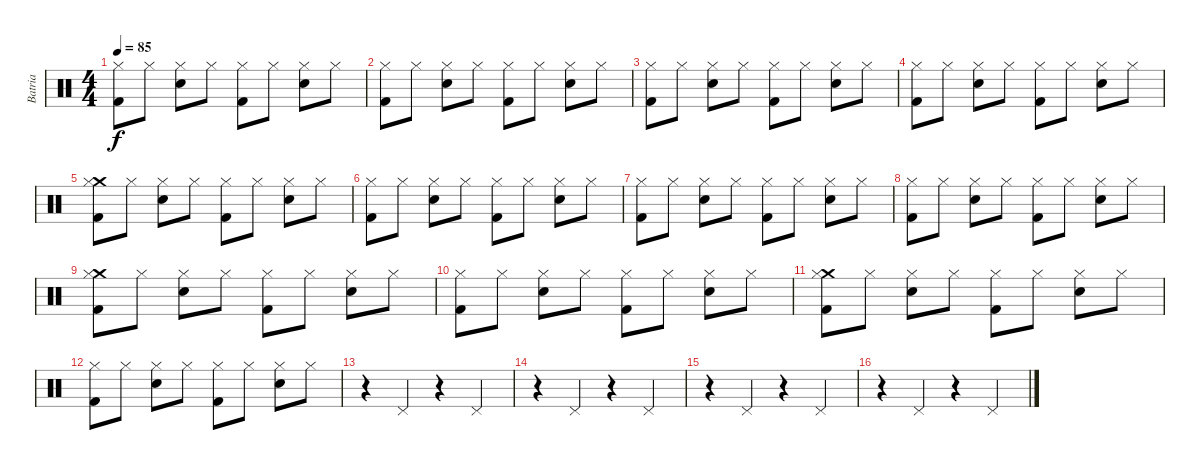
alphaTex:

\track ("Batria" "Batria") {instrument percussion}
\staff {score}
\articulation defaults
\ts (4 4)
\tempo 85
\clef neutral
\ks c
("Hi-Hat (closed)" "Kick (hit) 2").8{dy f} "Hi-Hat (closed)".8 ("Hi-Hat (closed)" "Snare (hit) 2").8 "Hi-Hat (closed)".8 ("Hi-Hat (closed)" "Kick (hit) 2").8 "Hi-Hat (closed)".8 ("Hi-Hat (closed)" "Snare (hit) 2").8 "Hi-Hat (closed)".8 |
("Hi-Hat (closed)" "Kick (hit) 2").8 "Hi-Hat (closed)".8 ("Hi-Hat (closed)" "Snare (hit) 2").8 "Hi-Hat (closed)".8 ("Hi-Hat (closed)" "Kick (hit) 2").8 "Hi-Hat (closed)".8 ("Hi-Hat (closed)" "Snare (hit) 2").8 "Hi-Hat (closed)".8 |
("Hi-Hat (closed)" "Kick (hit) 2").8 "Hi-Hat (closed)".8 ("Hi-Hat (closed)" "Snare (hit) 2").8 "Hi-Hat (closed)".8 ("Hi-Hat (closed)" "Kick (hit) 2").8 "Hi-Hat (closed)".8 ("Hi-Hat (closed)" "Snare (hit) 2").8 "Hi-Hat (closed)".8 |
("Hi-Hat (closed)" "Kick (hit) 2").8 "Hi-Hat (closed)".8 ("Hi-Hat (closed)" "Snare (hit) 2").8 "Hi-Hat (closed)".8 ("Hi-Hat (closed)" "Kick (hit) 2").8 "Hi-Hat (closed)".8 ("Hi-Hat (closed)" "Snare (hit) 2").8 "Hi-Hat (closed)".8 |
("Crash medium (hit)" "Hi-Hat (closed)" "Kick (hit) 2").8 "Hi-Hat (closed)".8 ("Hi-Hat (closed)" "Snare (hit) 2").8 "Hi-Hat (closed)".8 ("Hi-Hat (closed)" "Kick (hit) 2").8 "Hi-Hat (closed)".8 ("Hi-Hat (closed)" "Snare (hit) 2").8 "Hi-Hat (closed)".8 |
("Hi-Hat (closed)" "Kick (hit) 2").8 "Hi-Hat (closed)".8 ("Hi-Hat (closed)" "Snare (hit) 2").8 "Hi-Hat (closed)".8 ("Hi-Hat (closed)" "Kick (hit) 2").8 "Hi-Hat (closed)".8 ("Hi-Hat (closed)" "Snare (hit) 2").8 "Hi-Hat (closed)".8 |
("Hi-Hat (closed)" "Kick (hit) 2").8 "Hi-Hat (closed)".8 ("Hi-Hat (closed)" "Snare (hit) 2").8 "Hi-Hat (closed)".8 ("Hi-Hat (closed)" "Kick (hit) 2").8 "Hi-Hat (closed)".8 ("Hi-Hat (closed)" "Snare (hit) 2").8 "Hi-Hat (closed)".8 |
("Hi-Hat (closed)" "Kick (hit) 2").8 "Hi-Hat (closed)".8 ("Hi-Hat (closed)" "Snare (hit) 2").8 "Hi-Hat (closed)".8 ("Hi-Hat (closed)" "Kick (hit) 2").8 "Hi-Hat (closed)".8 ("Hi-Hat (closed)" "Snare (hit) 2").8 "Hi-Hat (closed)".8 |
("Crash medium (hit)" "Hi-Hat (closed)" "Kick (hit) 2").8 "Hi-Hat (closed)".8 ("Hi-Hat (closed)" "Snare (hit) 2").8 "Hi-Hat (closed)".8 ("Hi-Hat (closed)" "Kick (hit) 2").8 "Hi-Hat (closed)".8 ("Hi-Hat (closed)" "Snare (hit) 2").8 "Hi-Hat (closed)".8 |
("Hi-Hat (closed)" "Kick (hit) 2").8 "Hi-Hat (closed)".8 ("Hi-Hat (closed)" "Snare (hit) 2").8 "Hi-Hat (closed)".8 ("Hi-Hat (closed)" "Kick (hit) 2").8 "Hi-Hat (closed)".8 ("Hi-Hat (closed)" "Snare (hit) 2").8 "Hi-Hat (closed)".8 |
("Crash medium (hit)" "Hi-Hat (closed)" "Kick (hit) 2").8 "Hi-Hat (closed)".8 ("Hi-Hat (closed)" "Snare (hit) 2").8 "Hi-Hat (closed)".8 ("Hi-Hat (closed)" "Kick (hit) 2").8 "Hi-Hat (closed)".8 ("Hi-Hat (closed)" "Snare (hit) 2").8 "Hi-Hat (closed)".8 |
("Hi-Hat (closed)" "Kick (hit) 2").8 "Hi-Hat (closed)".8 ("Hi-Hat (closed)" "Snare (hit) 2").8 "Hi-Hat (closed)".8 ("Hi-Hat (closed)" "Kick (hit) 2").8 "Hi-Hat (closed)".8 ("Hi-Hat (closed)" "Snare (hit) 2").8 "Hi-Hat (closed)".8 |
r.4 "Pedal Hi-Hat (hit)".4 r.4 "Pedal Hi-Hat (hit)".4 |
r.4 "Pedal Hi-Hat (hit)".4 r.4 "Pedal Hi-Hat (hit)".4 |
r.4 "Pedal Hi-Hat (hit)".4 r.4 "Pedal Hi-Hat (hit)".4 |
r.4 "Pedal Hi-Hat (hit)".4 r.4 "Pedal Hi-Hat (hit)".4
